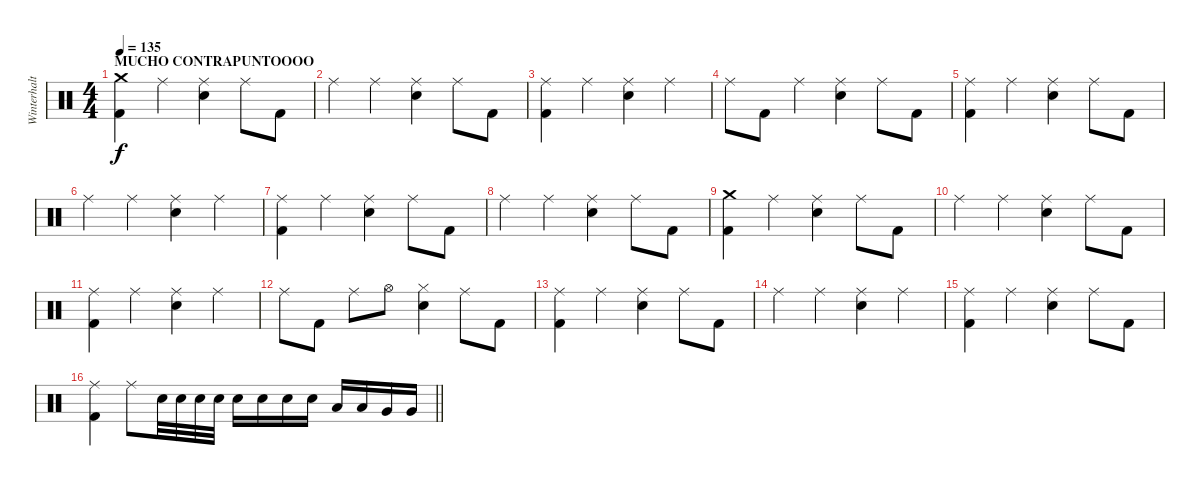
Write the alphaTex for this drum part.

\track ("Winterhalter" "Winterhalt") {instrument percussion}
\staff {score}
\articulation defaults
\ts (4 4)
\section ("" "MUCHO CONTRAPUNTOOOO")
\tempo 135
\clef neutral
\ks c
("Crash medium (hit)" "Kick (hit) 2").4{dy f} "Ride (middle)".4 ("Ride (middle)" "Snare (hit) 2").4 "Ride (middle)".8 "Kick (hit) 2".8 |
"Ride (middle)".4 "Ride (middle)".4 ("Ride (middle)" "Snare (hit) 2").4 "Ride (middle)".8 "Kick (hit) 2".8 |
("Ride (middle)" "Kick (hit) 2").4 "Ride (middle)".4 ("Ride (middle)" "Snare (hit) 2").4 "Ride (middle)".4 |
"Ride (middle)".8 "Kick (hit) 2".8 "Ride (middle)".4 ("Ride (middle)" "Snare (hit) 2").4 "Ride (middle)".8 "Kick (hit) 2".8 |
("Ride (middle)" "Kick (hit) 2").4 "Ride (middle)".4 ("Ride (middle)" "Snare (hit) 2").4 "Ride (middle)".8 "Kick (hit) 2".8 |
"Ride (middle)".4 "Ride (middle)".4 ("Ride (middle)" "Snare (hit) 2").4 "Ride (middle)".4 |
("Ride (middle)" "Kick (hit) 2").4 "Ride (middle)".4 ("Ride (middle)" "Snare (hit) 2").4 "Ride (middle)".8 "Kick (hit) 2".8 |
"Ride (middle)".4 "Ride (middle)".4 ("Ride (middle)" "Snare (hit) 2").4 "Ride (middle)".8 "Kick (hit) 2".8 |
("Crash medium (hit)" "Kick (hit) 2").4 "Ride (middle)".4 ("Ride (middle)" "Snare (hit) 2").4 "Ride (middle)".8 "Kick (hit) 2".8 |
"Ride (middle)".4 "Ride (middle)".4 ("Ride (middle)" "Snare (hit) 2").4 "Ride (middle)".8 "Kick (hit) 2".8 |
("Ride (middle)" "Kick (hit) 2").4 "Ride (middle)".4 ("Ride (middle)" "Snare (hit) 2").4 "Ride (middle)".4 |
"Ride (middle)".8 "Kick (hit) 2".8 "Ride (middle)".8 "Hi-Hat (open)".8 ("Hi-Hat (closed)" "Snare (hit) 2").4 "Ride (middle)".8 "Kick (hit) 2".8 |
("Ride (middle)" "Kick (hit) 2").4 "Ride (middle)".4 ("Ride (middle)" "Snare (hit) 2").4 "Ride (middle)".8 "Kick (hit) 2".8 |
"Ride (middle)".4 "Ride (middle)".4 ("Ride (middle)" "Snare (hit) 2").4 "Ride (middle)".4 |
("Ride (middle)" "Kick (hit) 2").4 "Ride (middle)".4 ("Ride (middle)" "Snare (hit) 2").4 "Ride (middle)".8 "Kick (hit) 2".8 |
\barLineRight lightlight
("Ride (middle)" "Kick (hit) 2").4 "Ride (middle)".8 "Snare (hit) 2".32 "Snare (hit) 2".32 "Snare (hit) 2".32 "Snare (hit) 2".32 "Snare (hit) 2".16 "Snare (hit) 2".16 "Snare (hit) 2".16 "Snare (hit) 2".16 "Low Tom (hit)".16 "Low Tom (hit)".16 "Very Low Tom (hit)".16 "Very Low Tom (hit)".16
